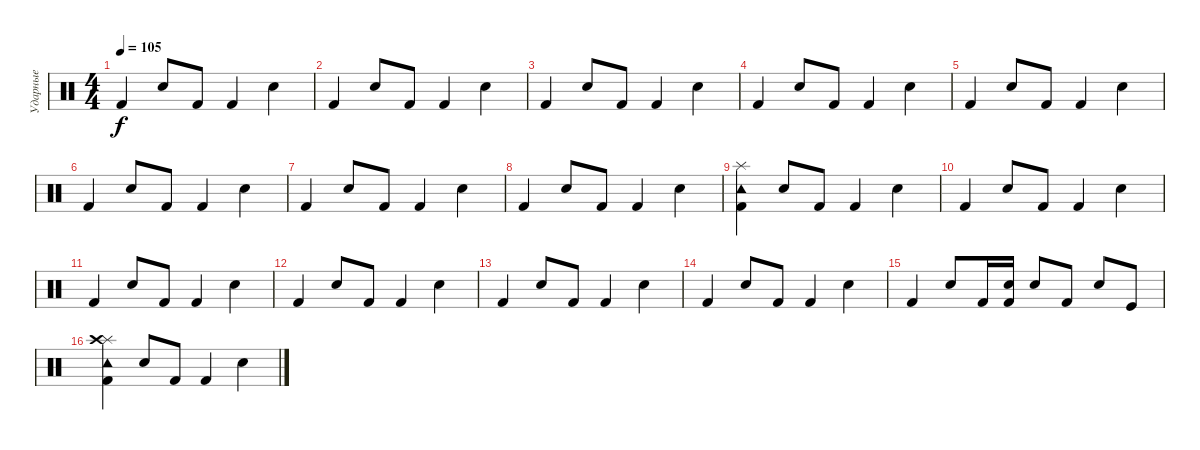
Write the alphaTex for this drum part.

\track ("Ударные" "Ударные") {instrument percussion}
\staff {score}
\articulation defaults
\ts (4 4)
\tempo 105
\clef neutral
\ks c "Kick (hit) 2".4{dy f} "Snare (hit) 2".8 "Kick (hit) 2".8 "Kick (hit) 2".4 "Snare (hit) 2".4
|
"Kick (hit) 2".4 "Snare (hit) 2".8 "Kick (hit) 2".8 "Kick (hit) 2".4 "Snare (hit) 2".4 |
"Kick (hit) 2".4 "Snare (hit) 2".8 "Kick (hit) 2".8 "Kick (hit) 2".4 "Snare (hit) 2".4 |
"Kick (hit) 2".4 "Snare (hit) 2".8 "Kick (hit) 2".8 "Kick (hit) 2".4 "Snare (hit) 2".4 |
"Kick (hit) 2".4 "Snare (hit) 2".8 "Kick (hit) 2".8 "Kick (hit) 2".4 "Snare (hit) 2".4 |
"Kick (hit) 2".4 "Snare (hit) 2".8 "Kick (hit) 2".8 "Kick (hit) 2".4 "Snare (hit) 2".4 |
"Kick (hit) 2".4 "Snare (hit) 2".8 "Kick (hit) 2".8 "Kick (hit) 2".4 "Snare (hit) 2".4 |
"Kick (hit) 2".4 "Snare (hit) 2".8 "Kick (hit) 2".8 "Kick (hit) 2".4 "Snare (hit) 2".4 |
("Tambourine (hit)" "Kick (hit) 2" "Splash (hit)").4 "Snare (hit) 2".8 "Kick (hit) 2".8 "Kick (hit) 2".4 "Snare (hit) 2".4 |
"Kick (hit) 2".4 "Snare (hit) 2".8 "Kick (hit) 2".8 "Kick (hit) 2".4 "Snare (hit) 2".4 |
"Kick (hit) 2".4 "Snare (hit) 2".8 "Kick (hit) 2".8 "Kick (hit) 2".4 "Snare (hit) 2".4 |
"Kick (hit) 2".4 "Snare (hit) 2".8 "Kick (hit) 2".8 "Kick (hit) 2".4 "Snare (hit) 2".4 |
"Kick (hit) 2".4 "Snare (hit) 2".8 "Kick (hit) 2".8 "Kick (hit) 2".4 "Snare (hit) 2".4 |
"Kick (hit) 2".4 "Snare (hit) 2".8 "Kick (hit) 2".8 "Kick (hit) 2".4 "Snare (hit) 2".4 |
"Kick (hit) 2".4 "Snare (hit) 2".8 "Kick (hit) 2".16 ("Kick (hit) 2" "Snare (hit) 2").16 "Snare (hit) 2".8 "Kick (hit) 2".8 "Snare (hit) 2".8 "Kick (hit)".8 |
("Tambourine (hit)" "Kick (hit) 2" "Splash (hit)" "Crash high (hit)").4 "Snare (hit) 2".8 "Kick (hit) 2".8 "Kick (hit) 2".4 "Snare (hit) 2".4
